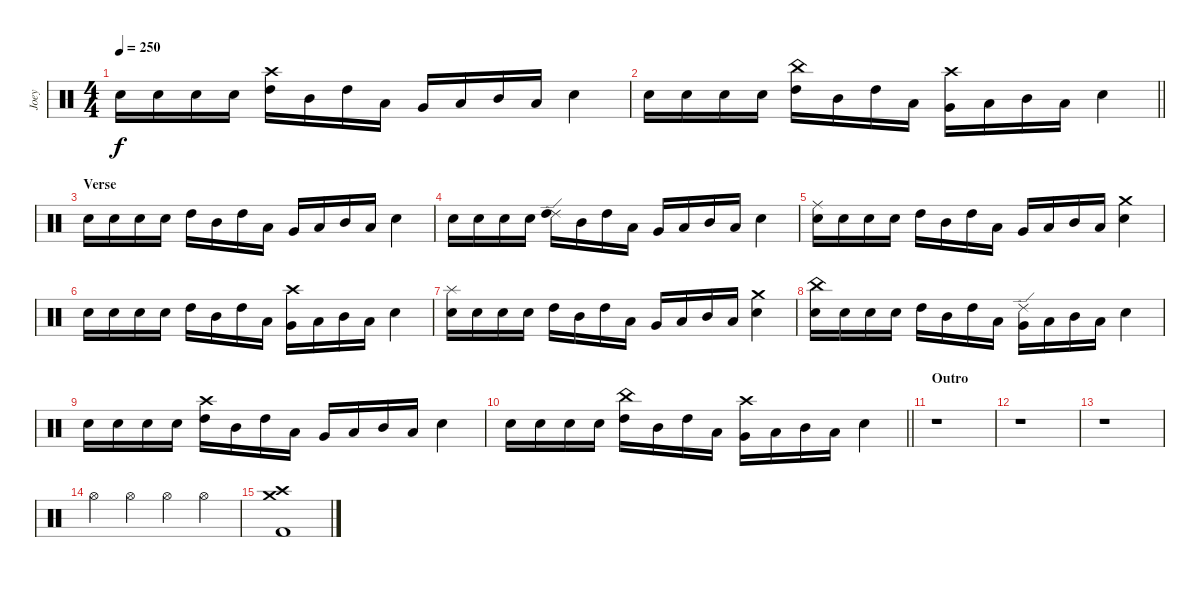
\track ("Joey" "Joey") {instrument percussion}
\staff {score}
\articulation defaults
\ts (4 4)
\tempo 250
\clef neutral
\ks c "Snare (hit) 2".16{dy f} "Snare (hit) 2".16 "Snare (hit) 2".16 "Snare (hit) 2".16
("Crash high (hit)" "High Tom (hit)").16 "Mid Tom (hit)".16 "High Tom (hit)".16 "Low Tom (hit)".16 "Very Low Tom (hit)".16 "Low Floor Tom (hit)".16 "Mid Tom (hit)".16 "Low Floor Tom (hit)".16 "Snare (hit) 2".4 |
\barLineRight lightlight "Snare (hit) 2".16 "Snare (hit) 2".16 "Snare (hit) 2".16 "Snare (hit) 2".16
("China (hit)" "High Tom (hit)").16 "Mid Tom (hit)".16 "High Tom (hit)".16 "Low Tom (hit)".16 ("Crash high (hit)" "Very Low Tom (hit)").16 "Low Floor Tom (hit)".16 "Mid Tom (hit)".16 "Low Floor Tom (hit)".16 "Snare (hit) 2".4 |
\section ("" "Verse")
"Snare (hit) 2".16 "Snare (hit) 2".16 "Snare (hit) 2".16 "Snare (hit) 2".16 "High Tom (hit)".16 "Mid Tom (hit)".16 "High Tom (hit)".16 "Low Tom (hit)".16 "Very Low Tom (hit)".16 "Low Floor Tom (hit)".16 "Mid Tom (hit)".16 "Low Floor Tom (hit)".16 "Snare (hit) 2".4 |
"Snare (hit) 2".16 "Snare (hit) 2".16 "Snare (hit) 2".16 "Snare (hit) 2".16 ("Ride (edge) 2" "High Tom (hit)").16 "Mid Tom (hit)".16 "High Tom (hit)".16 "Low Tom (hit)".16 "Very Low Tom (hit)".16 "Low Floor Tom (hit)".16 "Mid Tom (hit)".16 "Low Floor Tom (hit)".16 "Snare (hit) 2".4 |
("Ride (middle)" "Snare (hit) 2").16 "Snare (hit) 2".16 "Snare (hit) 2".16 "Snare (hit) 2".16 "High Tom (hit)".16 "Mid Tom (hit)".16 "High Tom (hit)".16 "Low Tom (hit)".16 "Very Low Tom (hit)".16 "Low Floor Tom (hit)".16 "Mid Tom (hit)".16 "Low Floor Tom (hit)".16 ("Crash medium (hit)" "Snare (hit) 2").4 |
"Snare (hit) 2".16 "Snare (hit) 2".16 "Snare (hit) 2".16 "Snare (hit) 2".16 "High Tom (hit)".16 "Mid Tom (hit)".16 "High Tom (hit)".16 "Low Tom (hit)".16 ("Crash high (hit)" "Very Low Tom (hit)").16 "Low Floor Tom (hit)".16 "Mid Tom (hit)".16 "Low Floor Tom (hit)".16 "Snare (hit) 2".4 |
("Splash (hit)" "Snare (hit) 2").16 "Snare (hit) 2".16 "Snare (hit) 2".16 "Snare (hit) 2".16 "High Tom (hit)".16 "Mid Tom (hit)".16 "High Tom (hit)".16 "Low Tom (hit)".16 "Very Low Tom (hit)".16 "Low Floor Tom (hit)".16 "Mid Tom (hit)".16 "Low Floor Tom (hit)".16 ("Crash medium (hit)" "Snare (hit) 2").4 |
("China (hit)" "Snare (hit) 2").16 "Snare (hit) 2".16 "Snare (hit) 2".16 "Snare (hit) 2".16 "High Tom (hit)".16 "Mid Tom (hit)".16 "High Tom (hit)".16 "Low Tom (hit)".16 ("Ride (edge) 2" "Very Low Tom (hit)").16 "Low Floor Tom (hit)".16 "Mid Tom (hit)".16 "Low Floor Tom (hit)".16 "Snare (hit) 2".4 |
"Snare (hit) 2".16 "Snare (hit) 2".16 "Snare (hit) 2".16 "Snare (hit) 2".16 ("Crash high (hit)" "High Tom (hit)").16 "Mid Tom (hit)".16 "High Tom (hit)".16 "Low Tom (hit)".16 "Very Low Tom (hit)".16 "Low Floor Tom (hit)".16 "Mid Tom (hit)".16 "Low Floor Tom (hit)".16 "Snare (hit) 2".4 |
\barLineRight lightlight "Snare (hit) 2".16 "Snare (hit) 2".16 "Snare (hit) 2".16 "Snare (hit) 2".16
("China (hit)" "High Tom (hit)").16 "Mid Tom (hit)".16 "High Tom (hit)".16 "Low Tom (hit)".16 ("Crash high (hit)" "Very Low Tom (hit)").16 "Low Floor Tom (hit)".16 "Mid Tom (hit)".16 "Low Floor Tom (hit)".16 "Snare (hit) 2".4 |
\section ("" "Outro")
r.1 |
r.1 |
r.1 |
"Hi-Hat (open)".4 "Hi-Hat (open)".4 "Hi-Hat (open)".4 "Hi-Hat (open)".4 |
("Crash high (hit)" "Crash medium (hit)" "Kick (hit) 2").1
